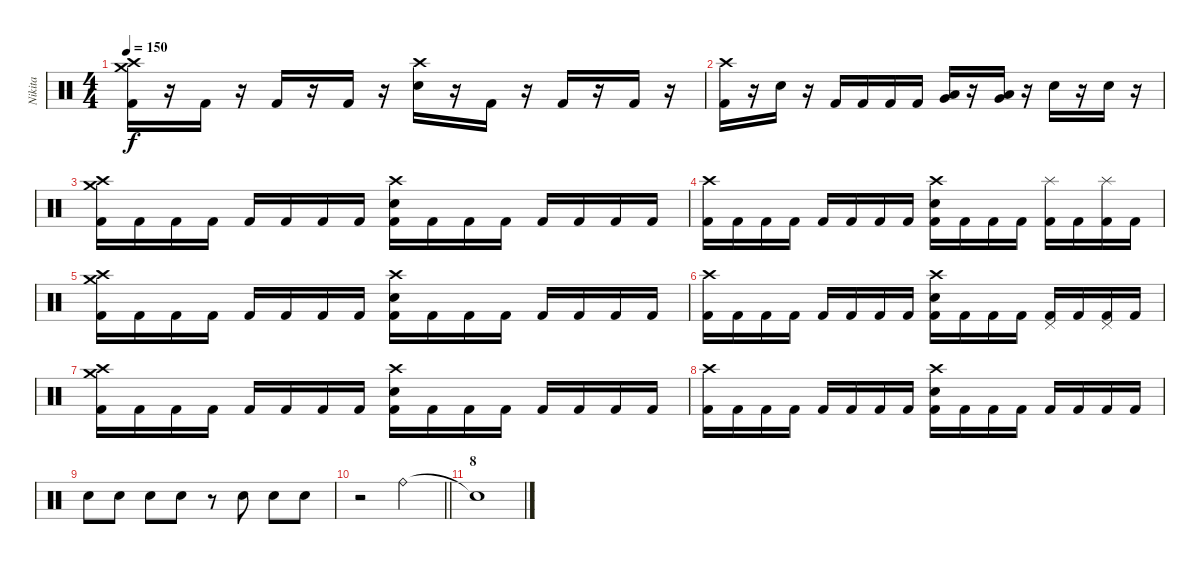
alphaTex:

\track ("Nikita" "Nikita") {instrument percussion}
\staff {score}
\articulation defaults
\ts (4 4)
\tempo 150
\clef neutral
\ks c
("Crash high (hit)" "Crash medium (hit)" "Kick (hit) 2").16{dy f} r.16 "Kick (hit) 2".16 r.16 "Kick (hit) 2".16 r.16 "Kick (hit) 2".16 r.16 ("Crash high (hit)" "Electric Snare (hit)").16 r.16 "Kick (hit) 2".16 r.16 "Kick (hit) 2".16 r.16 "Kick (hit) 2".16 r.16 |
("Crash high (hit)" "Kick (hit) 2").16 r.16 "Electric Snare (hit)".16 r.16 "Kick (hit) 2".16 "Kick (hit) 2".16 "Kick (hit) 2".16 "Kick (hit) 2".16 ("Very Low Tom (hit)" "Low Tom (hit)").16 r.16 ("Very Low Tom (hit)" "Low Tom (hit)").16 r.16 "Electric Snare (hit)".16 r.16 "Electric Snare (hit)".16 r.16 |
("Crash high (hit)" "Crash medium (hit)" "Kick (hit) 2").16 "Kick (hit) 2".16 "Kick (hit) 2".16 "Kick (hit) 2".16 "Kick (hit) 2".16 "Kick (hit) 2".16 "Kick (hit) 2".16 "Kick (hit) 2".16 ("Crash high (hit)" "Electric Snare (hit)" "Kick (hit) 2").16 "Kick (hit) 2".16 "Kick (hit) 2".16 "Kick (hit) 2".16 "Kick (hit) 2".16 "Kick (hit) 2".16 "Kick (hit) 2".16 "Kick (hit) 2".16 |
("Crash high (hit)" "Kick (hit) 2").16 "Kick (hit) 2".16 "Kick (hit) 2".16 "Kick (hit) 2".16 "Kick (hit) 2".16 "Kick (hit) 2".16 "Kick (hit) 2".16 "Kick (hit) 2".16 ("Crash high (hit)" "Electric Snare (hit)" "Kick (hit) 2").16 "Kick (hit) 2".16 "Kick (hit) 2".16 "Kick (hit) 2".16 ("Splash (hit)" "Kick (hit) 2").16 "Kick (hit) 2".16 ("Splash (hit)" "Kick (hit) 2").16 "Kick (hit) 2".16 |
("Crash high (hit)" "Crash medium (hit)" "Kick (hit) 2").16 "Kick (hit) 2".16 "Kick (hit) 2".16 "Kick (hit) 2".16 "Kick (hit) 2".16 "Kick (hit) 2".16 "Kick (hit) 2".16 "Kick (hit) 2".16 ("Crash high (hit)" "Electric Snare (hit)" "Kick (hit) 2").16 "Kick (hit) 2".16 "Kick (hit) 2".16 "Kick (hit) 2".16 "Kick (hit) 2".16 "Kick (hit) 2".16 "Kick (hit) 2".16 "Kick (hit) 2".16 |
("Crash high (hit)" "Kick (hit) 2").16 "Kick (hit) 2".16 "Kick (hit) 2".16 "Kick (hit) 2".16 "Kick (hit) 2".16 "Kick (hit) 2".16 "Kick (hit) 2".16 "Kick (hit) 2".16 ("Crash high (hit)" "Electric Snare (hit)" "Kick (hit) 2").16 "Kick (hit) 2".16 "Kick (hit) 2".16 "Kick (hit) 2".16 ("Pedal Hi-Hat (hit)" "Kick (hit) 2").16 "Kick (hit) 2".16 ("Pedal Hi-Hat (hit)" "Kick (hit) 2").16 "Kick (hit) 2".16 |
("Crash high (hit)" "Crash medium (hit)" "Kick (hit) 2").16 "Kick (hit) 2".16 "Kick (hit) 2".16 "Kick (hit) 2".16 "Kick (hit) 2".16 "Kick (hit) 2".16 "Kick (hit) 2".16 "Kick (hit) 2".16 ("Crash high (hit)" "Electric Snare (hit)" "Kick (hit) 2").16 "Kick (hit) 2".16 "Kick (hit) 2".16 "Kick (hit) 2".16 "Kick (hit) 2".16 "Kick (hit) 2".16 "Kick (hit) 2".16 "Kick (hit) 2".16 |
("Crash high (hit)" "Kick (hit) 2").16 "Kick (hit) 2".16 "Kick (hit) 2".16 "Kick (hit) 2".16 "Kick (hit) 2".16 "Kick (hit) 2".16 "Kick (hit) 2".16 "Kick (hit) 2".16 ("Crash high (hit)" "Electric Snare (hit)" "Kick (hit) 2").16 "Kick (hit) 2".16 "Kick (hit) 2".16 "Kick (hit) 2".16 "Kick (hit) 2".16 "Kick (hit) 2".16 "Kick (hit) 2".16 "Kick (hit) 2".16 |
"Electric Snare (hit)".8 "Electric Snare (hit)".8 "Electric Snare (hit)".8 "Electric Snare (hit)".8 r.8 "Electric Snare (hit)".8 "Electric Snare (hit)".8 "Electric Snare (hit)".8 |
\barLineRight lightlight
r.2 "Ride (bell)".2 |
\section ("" "8")
"Snare (hit)"{t}.1
